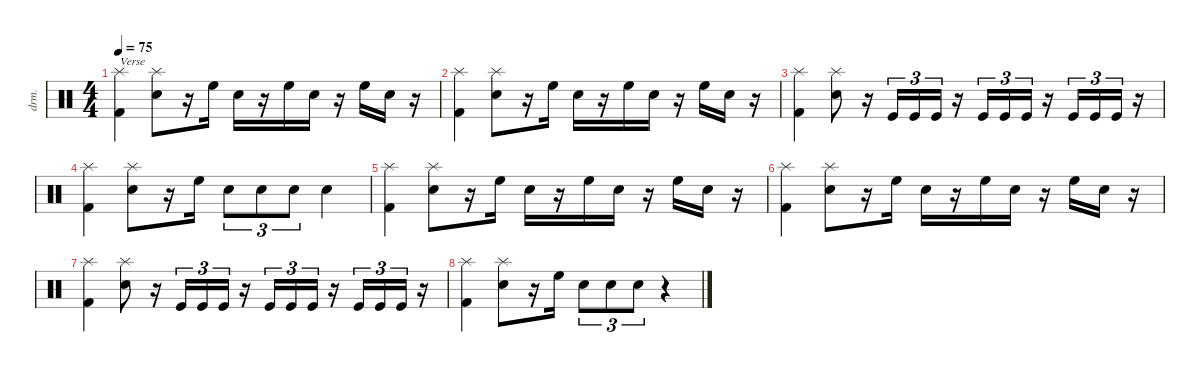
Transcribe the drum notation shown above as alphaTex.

\defaultSystemsLayout 4
\hideDynamics
\bracketExtendMode nobrackets
\otherSystemsTrackNameOrientation horizontal
\track ("Drumkit" "drm.") {instrument percussion}
\staff {score}
\articulation defaults
\ts (4 4)
\tempo 75
\clef neutral
\ks c
("Kick (hit) 2" "Splash (hit)").4{txt "Verse" dy mf beam Down} ("Snare (hit) 2" "Splash (hit)").8{beam Down} r.16{beam Down} "High Floor Tom (hit)".16{beam Down} "Snare (hit) 2".16{beam Down} r.16{beam Down} "High Floor Tom (hit)".16{beam Down} "Snare (hit) 2".16{beam Down} r.16{beam Down} "High Floor Tom (hit)".16{beam Down} "Snare (hit) 2".16{beam Down} r.16{beam Down} |
("Kick (hit) 2" "Splash (hit)").4{beam Down} ("Snare (hit) 2" "Splash (hit)").8{beam Down} r.16{beam Down} "High Floor Tom (hit)".16{beam Down} "Snare (hit) 2".16{beam Down} r.16{beam Down} "High Floor Tom (hit)".16{beam Down} "Snare (hit) 2".16{beam Down} r.16{beam Down} "High Floor Tom (hit)".16{beam Down} "Snare (hit) 2".16{beam Down} r.16{beam Down} |
("Kick (hit) 2" "Splash (hit)").4{beam Down} ("Snare (hit) 2" "Splash (hit)").8{beam Down} r.16{beam Down} "Kick (hit)".16{tu (3 2) beam Up} "Kick (hit)".16{tu (3 2) beam Up} "Kick (hit)".16{tu (3 2) beam Up} r.16{beam Up} "Kick (hit)".16{tu (3 2) beam Up} "Kick (hit)".16{tu (3 2) beam Up} "Kick (hit)".16{tu (3 2) beam Up} r.16{beam Up} "Kick (hit)".16{tu (3 2) beam Up} "Kick (hit)".16{tu (3 2) beam Up} "Kick (hit)".16{tu (3 2) beam Up} r.16{beam Up} |
("Kick (hit) 2" "Splash (hit)").4{beam Down} ("Snare (hit) 2" "Splash (hit)").8{beam Down} r.16{beam Down} "High Floor Tom (hit)".16{beam Down} "Snare (hit) 2".8{tu (3 2) beam Down} "Snare (hit) 2".8{tu (3 2) beam Down} "Snare (hit) 2".8{tu (3 2) beam Down} "Snare (hit) 2".4{beam Down} |
("Kick (hit) 2" "Splash (hit)").4{beam Down} ("Snare (hit) 2" "Splash (hit)").8{beam Down} r.16{beam Down} "High Floor Tom (hit)".16{beam Down} "Snare (hit) 2".16{beam Down} r.16{beam Down} "High Floor Tom (hit)".16{beam Down} "Snare (hit) 2".16{beam Down} r.16{beam Down} "High Floor Tom (hit)".16{beam Down} "Snare (hit) 2".16{beam Down} r.16{beam Down} |
("Kick (hit) 2" "Splash (hit)").4{beam Down} ("Snare (hit) 2" "Splash (hit)").8{beam Down} r.16{beam Down} "High Floor Tom (hit)".16{beam Down} "Snare (hit) 2".16{beam Down} r.16{beam Down} "High Floor Tom (hit)".16{beam Down} "Snare (hit) 2".16{beam Down} r.16{beam Down} "High Floor Tom (hit)".16{beam Down} "Snare (hit) 2".16{beam Down} r.16{beam Down} |
("Kick (hit) 2" "Splash (hit)").4{beam Down} ("Snare (hit) 2" "Splash (hit)").8{beam Down} r.16{beam Down} "Kick (hit)".16{tu (3 2) beam Up} "Kick (hit)".16{tu (3 2) beam Up} "Kick (hit)".16{tu (3 2) beam Up} r.16{beam Up} "Kick (hit)".16{tu (3 2) beam Up} "Kick (hit)".16{tu (3 2) beam Up} "Kick (hit)".16{tu (3 2) beam Up} r.16{beam Up} "Kick (hit)".16{tu (3 2) beam Up} "Kick (hit)".16{tu (3 2) beam Up} "Kick (hit)".16{tu (3 2) beam Up} r.16{beam Up} |
("Kick (hit) 2" "Splash (hit)").4{beam Down} ("Snare (hit) 2" "Splash (hit)").8{beam Down} r.16{beam Down} "High Floor Tom (hit)".16{beam Down} "Snare (hit) 2".8{tu (3 2) beam Down} "Snare (hit) 2".8{tu (3 2) beam Down} "Snare (hit) 2".8{tu (3 2) beam Down} r.4{beam Down}
